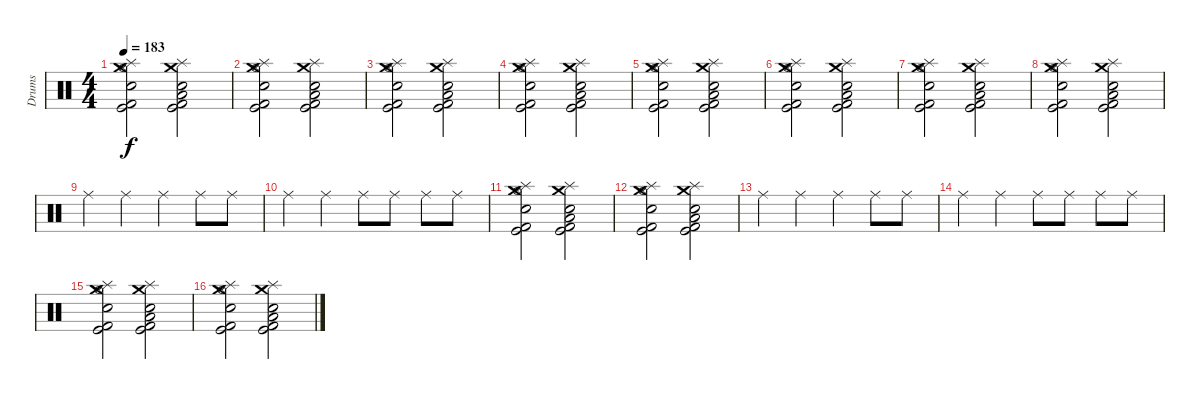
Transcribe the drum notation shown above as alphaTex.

\track ("Drums" "Drums") {instrument percussion}
\staff {score}
\articulation defaults
\ts (4 4)
\tempo 183
\clef neutral
\ks c
("Hi-Hat (open)" "Crash medium (hit)" "Splash (hit)" "Kick (hit)" "Kick (hit) 2" "Electric Snare (hit)").2{dy f} ("Splash (hit)" "Crash medium (hit)" "Kick (hit) 2" "Kick (hit)" "Low Tom (hit)" "Electric Snare (hit)").2 |
("Hi-Hat (open)" "Crash medium (hit)" "Splash (hit)" "Kick (hit)" "Kick (hit) 2" "Electric Snare (hit)").2 ("Splash (hit)" "Crash medium (hit)" "Kick (hit) 2" "Kick (hit)" "Low Tom (hit)" "Electric Snare (hit)").2 |
("Hi-Hat (open)" "Crash medium (hit)" "Splash (hit)" "Kick (hit)" "Kick (hit) 2" "Electric Snare (hit)").2 ("Splash (hit)" "Crash medium (hit)" "Kick (hit) 2" "Kick (hit)" "Low Tom (hit)" "Electric Snare (hit)").2 |
("Hi-Hat (open)" "Crash medium (hit)" "Splash (hit)" "Kick (hit)" "Kick (hit) 2" "Electric Snare (hit)").2 ("Splash (hit)" "Crash medium (hit)" "Kick (hit) 2" "Kick (hit)" "Low Tom (hit)" "Electric Snare (hit)").2 |
("Hi-Hat (open)" "Crash medium (hit)" "Splash (hit)" "Kick (hit)" "Kick (hit) 2" "Electric Snare (hit)").2 ("Splash (hit)" "Crash medium (hit)" "Kick (hit) 2" "Kick (hit)" "Low Tom (hit)" "Electric Snare (hit)").2 |
("Hi-Hat (open)" "Crash medium (hit)" "Splash (hit)" "Kick (hit)" "Kick (hit) 2" "Electric Snare (hit)").2 ("Splash (hit)" "Crash medium (hit)" "Kick (hit) 2" "Kick (hit)" "Low Tom (hit)" "Electric Snare (hit)").2 |
("Hi-Hat (open)" "Crash medium (hit)" "Splash (hit)" "Kick (hit)" "Kick (hit) 2" "Electric Snare (hit)").2 ("Splash (hit)" "Crash medium (hit)" "Kick (hit) 2" "Kick (hit)" "Low Tom (hit)" "Electric Snare (hit)").2 |
("Hi-Hat (open)" "Crash medium (hit)" "Splash (hit)" "Kick (hit)" "Kick (hit) 2" "Electric Snare (hit)").2 ("Splash (hit)" "Crash medium (hit)" "Kick (hit) 2" "Kick (hit)" "Low Tom (hit)" "Electric Snare (hit)").2 |
"Ride (middle)".4 "Ride (middle)".4 "Ride (middle)".4 "Ride (middle)".8 "Ride (middle)".8 |
"Ride (middle)".4 "Ride (middle)".4 "Ride (middle)".8 "Ride (middle)".8 "Ride (middle)".8 "Ride (middle)".8 |
("Hi-Hat (open)" "Crash medium (hit)" "Splash (hit)" "Kick (hit)" "Kick (hit) 2" "Electric Snare (hit)").2 ("Splash (hit)" "Crash medium (hit)" "Kick (hit) 2" "Kick (hit)" "Low Tom (hit)" "Electric Snare (hit)").2 |
("Hi-Hat (open)" "Crash medium (hit)" "Splash (hit)" "Kick (hit)" "Kick (hit) 2" "Electric Snare (hit)").2 ("Splash (hit)" "Crash medium (hit)" "Kick (hit) 2" "Kick (hit)" "Low Tom (hit)" "Electric Snare (hit)").2 |
"Ride (middle)".4 "Ride (middle)".4 "Ride (middle)".4 "Ride (middle)".8 "Ride (middle)".8 |
"Ride (middle)".4 "Ride (middle)".4 "Ride (middle)".8 "Ride (middle)".8 "Ride (middle)".8 "Ride (middle)".8 |
("Hi-Hat (open)" "Crash medium (hit)" "Splash (hit)" "Kick (hit)" "Kick (hit) 2" "Electric Snare (hit)").2 ("Splash (hit)" "Crash medium (hit)" "Kick (hit) 2" "Kick (hit)" "Low Tom (hit)" "Electric Snare (hit)").2 |
("Hi-Hat (open)" "Crash medium (hit)" "Splash (hit)" "Kick (hit)" "Kick (hit) 2" "Electric Snare (hit)").2 ("Splash (hit)" "Crash medium (hit)" "Kick (hit) 2" "Kick (hit)" "Low Tom (hit)" "Electric Snare (hit)").2
